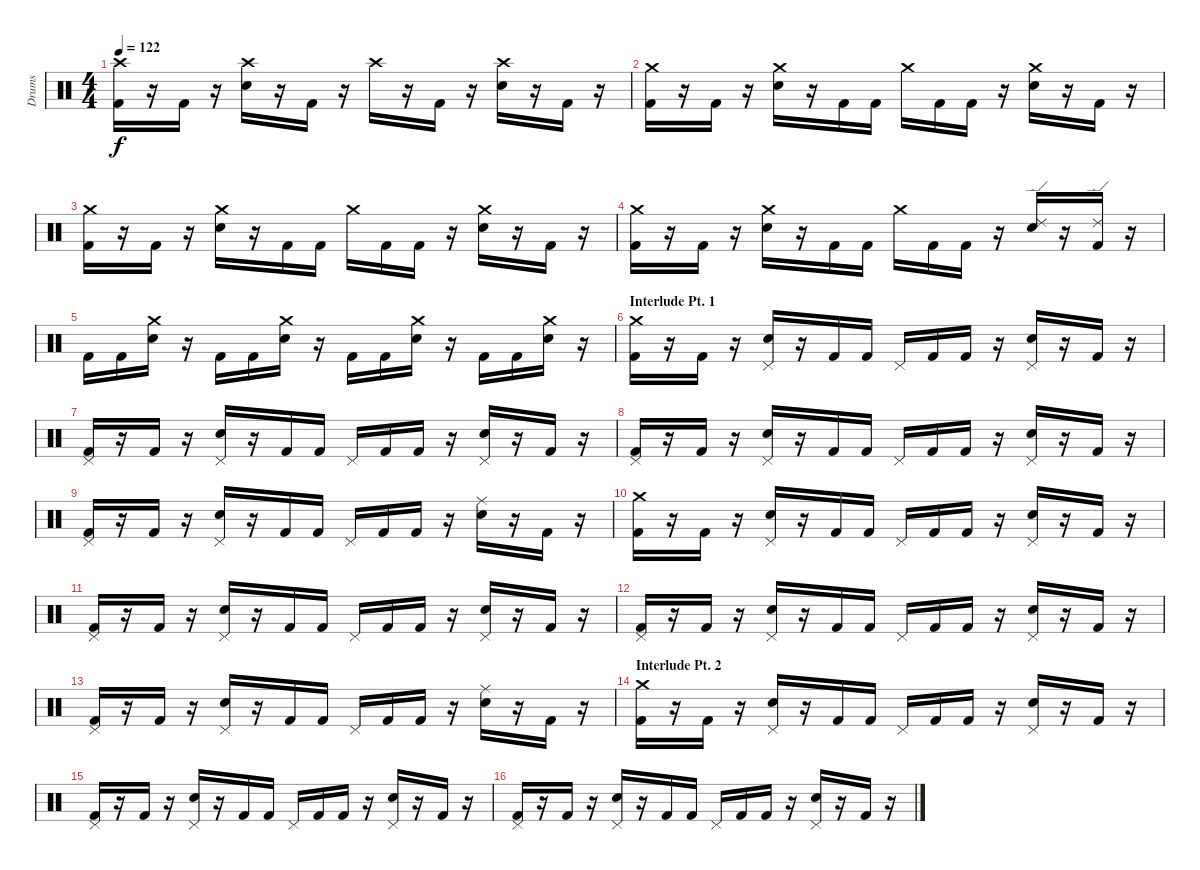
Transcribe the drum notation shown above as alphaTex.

\track ("Drums" "Drums") {instrument percussion}
\staff {score}
\articulation defaults
\ts (4 4)
\tempo 122
\clef neutral
\ks c
("Crash high (hit)" "Kick (hit) 2").16{dy f} r.16 "Kick (hit) 2".16 r.16 ("Crash high (hit)" "Snare (hit) 2").16 r.16 "Kick (hit) 2".16 r.16 "Crash high (hit)".16 r.16 "Kick (hit) 2".16 r.16 ("Crash high (hit)" "Snare (hit) 2").16 r.16 "Kick (hit) 2".16 r.16 |
("Crash medium (hit)" "Kick (hit) 2").16 r.16 "Kick (hit) 2".16 r.16 ("Crash medium (hit)" "Snare (hit) 2").16 r.16 "Kick (hit) 2".16 "Kick (hit) 2".16 "Crash medium (hit)".16 "Kick (hit) 2".16 "Kick (hit) 2".16 r.16 ("Crash medium (hit)" "Snare (hit) 2").16 r.16 "Kick (hit) 2".16 r.16 |
("Crash medium (hit)" "Kick (hit) 2").16 r.16 "Kick (hit) 2".16 r.16 ("Crash medium (hit)" "Snare (hit) 2").16 r.16 "Kick (hit) 2".16 "Kick (hit) 2".16 "Crash medium (hit)".16 "Kick (hit) 2".16 "Kick (hit) 2".16 r.16 ("Crash medium (hit)" "Snare (hit) 2").16 r.16 "Kick (hit) 2".16 r.16 |
("Crash medium (hit)" "Kick (hit) 2").16 r.16 "Kick (hit) 2".16 r.16 ("Crash medium (hit)" "Snare (hit) 2").16 r.16 "Kick (hit) 2".16 "Kick (hit) 2".16 "Crash medium (hit)".16 "Kick (hit) 2".16 "Kick (hit) 2".16 r.16 ("Ride (edge) 2" "Snare (hit) 2").16 r.16 ("Ride (edge) 2" "Kick (hit) 2").16 r.16 |
"Kick (hit) 2".16 "Kick (hit) 2".16 ("Crash medium (hit)" "Snare (hit) 2").16 r.16 "Kick (hit) 2".16 "Kick (hit) 2".16 ("Crash medium (hit)" "Snare (hit) 2").16 r.16 "Kick (hit) 2".16 "Kick (hit) 2".16 ("Crash medium (hit)" "Snare (hit) 2").16 r.16 "Kick (hit) 2".16 "Kick (hit) 2".16 ("Crash medium (hit)" "Snare (hit) 2").16 r.16 |
\section ("" "Interlude Pt. 1")
("Crash medium (hit)" "Kick (hit) 2").16 r.16 "Kick (hit) 2".16 r.16 ("Pedal Hi-Hat (hit)" "Snare (hit) 2").16 r.16 "Kick (hit) 2".16 "Kick (hit) 2".16 "Pedal Hi-Hat (hit)".16 "Kick (hit) 2".16 "Kick (hit) 2".16 r.16 ("Pedal Hi-Hat (hit)" "Snare (hit) 2").16 r.16 "Kick (hit) 2".16 r.16 |
("Pedal Hi-Hat (hit)" "Kick (hit) 2").16 r.16 "Kick (hit) 2".16 r.16 ("Pedal Hi-Hat (hit)" "Snare (hit) 2").16 r.16 "Kick (hit) 2".16 "Kick (hit) 2".16 "Pedal Hi-Hat (hit)".16 "Kick (hit) 2".16 "Kick (hit) 2".16 r.16 ("Pedal Hi-Hat (hit)" "Snare (hit) 2").16 r.16 "Kick (hit) 2".16 r.16 |
("Pedal Hi-Hat (hit)" "Kick (hit) 2").16 r.16 "Kick (hit) 2".16 r.16 ("Pedal Hi-Hat (hit)" "Snare (hit) 2").16 r.16 "Kick (hit) 2".16 "Kick (hit) 2".16 "Pedal Hi-Hat (hit)".16 "Kick (hit) 2".16 "Kick (hit) 2".16 r.16 ("Pedal Hi-Hat (hit)" "Snare (hit) 2").16 r.16 "Kick (hit) 2".16 r.16 |
("Pedal Hi-Hat (hit)" "Kick (hit) 2").16 r.16 "Kick (hit) 2".16 r.16 ("Pedal Hi-Hat (hit)" "Snare (hit) 2").16 r.16 "Kick (hit) 2".16 "Kick (hit) 2".16 "Pedal Hi-Hat (hit)".16 "Kick (hit) 2".16 "Kick (hit) 2".16 r.16 ("Ride (middle)" "Snare (hit) 2").16 r.16 "Kick (hit) 2".16 r.16 |
("Crash medium (hit)" "Kick (hit) 2").16 r.16 "Kick (hit) 2".16 r.16 ("Pedal Hi-Hat (hit)" "Snare (hit) 2").16 r.16 "Kick (hit) 2".16 "Kick (hit) 2".16 "Pedal Hi-Hat (hit)".16 "Kick (hit) 2".16 "Kick (hit) 2".16 r.16 ("Pedal Hi-Hat (hit)" "Snare (hit) 2").16 r.16 "Kick (hit) 2".16 r.16 |
("Pedal Hi-Hat (hit)" "Kick (hit) 2").16 r.16 "Kick (hit) 2".16 r.16 ("Pedal Hi-Hat (hit)" "Snare (hit) 2").16 r.16 "Kick (hit) 2".16 "Kick (hit) 2".16 "Pedal Hi-Hat (hit)".16 "Kick (hit) 2".16 "Kick (hit) 2".16 r.16 ("Pedal Hi-Hat (hit)" "Snare (hit) 2").16 r.16 "Kick (hit) 2".16 r.16 |
("Pedal Hi-Hat (hit)" "Kick (hit) 2").16 r.16 "Kick (hit) 2".16 r.16 ("Pedal Hi-Hat (hit)" "Snare (hit) 2").16 r.16 "Kick (hit) 2".16 "Kick (hit) 2".16 "Pedal Hi-Hat (hit)".16 "Kick (hit) 2".16 "Kick (hit) 2".16 r.16 ("Pedal Hi-Hat (hit)" "Snare (hit) 2").16 r.16 "Kick (hit) 2".16 r.16 |
("Pedal Hi-Hat (hit)" "Kick (hit) 2").16 r.16 "Kick (hit) 2".16 r.16 ("Pedal Hi-Hat (hit)" "Snare (hit) 2").16 r.16 "Kick (hit) 2".16 "Kick (hit) 2".16 "Pedal Hi-Hat (hit)".16 "Kick (hit) 2".16 "Kick (hit) 2".16 r.16 ("Ride (middle)" "Snare (hit) 2").16 r.16 "Kick (hit) 2".16 r.16 |
\section ("" "Interlude Pt. 2")
("Crash medium (hit)" "Kick (hit) 2").16 r.16 "Kick (hit) 2".16 r.16 ("Pedal Hi-Hat (hit)" "Snare (hit) 2").16 r.16 "Kick (hit) 2".16 "Kick (hit) 2".16 "Pedal Hi-Hat (hit)".16 "Kick (hit) 2".16 "Kick (hit) 2".16 r.16 ("Pedal Hi-Hat (hit)" "Snare (hit) 2").16 r.16 "Kick (hit) 2".16 r.16 |
("Pedal Hi-Hat (hit)" "Kick (hit) 2").16 r.16 "Kick (hit) 2".16 r.16 ("Pedal Hi-Hat (hit)" "Snare (hit) 2").16 r.16 "Kick (hit) 2".16 "Kick (hit) 2".16 "Pedal Hi-Hat (hit)".16 "Kick (hit) 2".16 "Kick (hit) 2".16 r.16 ("Pedal Hi-Hat (hit)" "Snare (hit) 2").16 r.16 "Kick (hit) 2".16 r.16 |
("Pedal Hi-Hat (hit)" "Kick (hit) 2").16 r.16 "Kick (hit) 2".16 r.16 ("Pedal Hi-Hat (hit)" "Snare (hit) 2").16 r.16 "Kick (hit) 2".16 "Kick (hit) 2".16 "Pedal Hi-Hat (hit)".16 "Kick (hit) 2".16 "Kick (hit) 2".16 r.16 ("Pedal Hi-Hat (hit)" "Snare (hit) 2").16 r.16 "Kick (hit) 2".16 r.16
